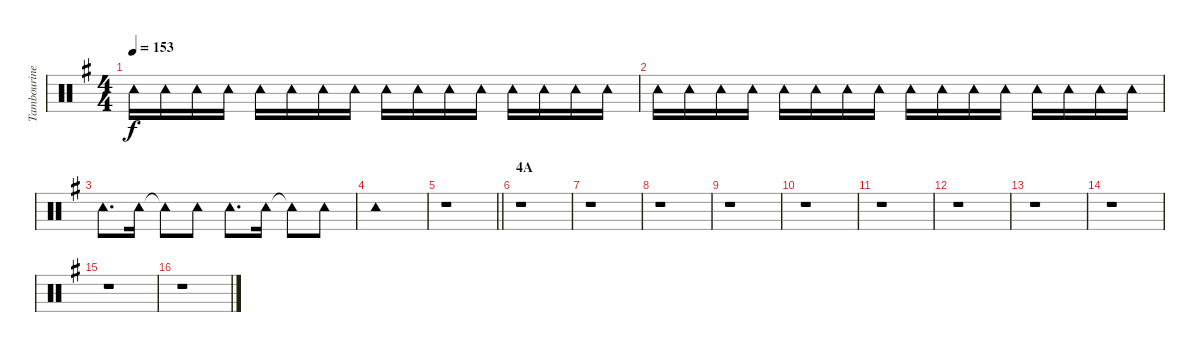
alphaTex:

\track ("Tambourine" "Tambourine") {instrument percussion}
\staff {score}
\articulation defaults
\ts (4 4)
\tempo 153
\clef neutral
\ks g "Tambourine (hit)".16{dy f} "Tambourine (hit)".16 "Tambourine (hit)".16 "Tambourine (hit)".16 "Tambourine (hit)".16 "Tambourine (hit)".16 "Tambourine (hit)".16 "Tambourine (hit)".16 "Tambourine (hit)".16 "Tambourine (hit)".16 "Tambourine (hit)".16 "Tambourine (hit)".16 "Tambourine (hit)".16 "Tambourine (hit)".16 "Tambourine (hit)".16 "Tambourine (hit)".16
|
"Tambourine (hit)".16 "Tambourine (hit)".16 "Tambourine (hit)".16 "Tambourine (hit)".16 "Tambourine (hit)".16 "Tambourine (hit)".16 "Tambourine (hit)".16 "Tambourine (hit)".16 "Tambourine (hit)".16 "Tambourine (hit)".16 "Tambourine (hit)".16 "Tambourine (hit)".16 "Tambourine (hit)".16 "Tambourine (hit)".16 "Tambourine (hit)".16 "Tambourine (hit)".16 |
"Tambourine (hit)".8{d} "Tambourine (hit)".16 "Tambourine (hit)"{t}.8 "Tambourine (hit)".8 "Tambourine (hit)".8{d} "Tambourine (hit)".16 "Tambourine (hit)"{t}.8 "Tambourine (hit)".8 |
"Tambourine (hit)".1 |
\barLineRight lightlight
r.1 |
\section ("" "4A")
r.1 |
r.1 |
r.1 |
r.1 |
r.1 |
r.1 |
r.1 |
r.1 |
r.1 |
r.1 |
r.1
